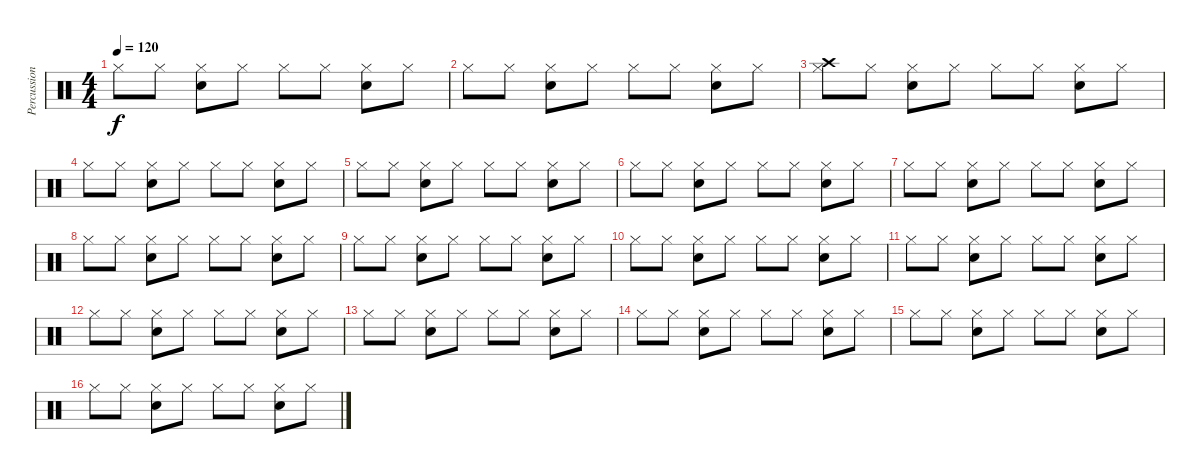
\track ("Percussion      " "Percussion") {instrument percussion}
\staff {score}
\articulation defaults
\ts (4 4)
\tempo 120
\clef neutral
\ks c "Hi-Hat (closed)".8{dy f} "Hi-Hat (closed)".8
("Hi-Hat (closed)" "Snare (hit) 2").8 "Hi-Hat (closed)".8 "Hi-Hat (closed)".8 "Hi-Hat (closed)".8 ("Hi-Hat (closed)" "Snare (hit) 2").8 "Hi-Hat (closed)".8 |
"Hi-Hat (closed)".8 "Hi-Hat (closed)".8 ("Hi-Hat (closed)" "Snare (hit) 2").8 "Hi-Hat (closed)".8 "Hi-Hat (closed)".8 "Hi-Hat (closed)".8 ("Hi-Hat (closed)" "Snare (hit) 2").8 "Hi-Hat (closed)".8 |
("Crash high (hit)" "Hi-Hat (closed)").8 "Hi-Hat (closed)".8 ("Hi-Hat (closed)" "Snare (hit) 2").8 "Hi-Hat (closed)".8 "Hi-Hat (closed)".8 "Hi-Hat (closed)".8 ("Hi-Hat (closed)" "Snare (hit) 2").8 "Hi-Hat (closed)".8 |
"Hi-Hat (closed)".8 "Hi-Hat (closed)".8 ("Hi-Hat (closed)" "Snare (hit) 2").8 "Hi-Hat (closed)".8 "Hi-Hat (closed)".8 "Hi-Hat (closed)".8 ("Hi-Hat (closed)" "Snare (hit) 2").8 "Hi-Hat (closed)".8 |
"Hi-Hat (closed)".8 "Hi-Hat (closed)".8 ("Hi-Hat (closed)" "Snare (hit) 2").8 "Hi-Hat (closed)".8 "Hi-Hat (closed)".8 "Hi-Hat (closed)".8 ("Hi-Hat (closed)" "Snare (hit) 2").8 "Hi-Hat (closed)".8 |
"Hi-Hat (closed)".8 "Hi-Hat (closed)".8 ("Hi-Hat (closed)" "Snare (hit) 2").8 "Hi-Hat (closed)".8 "Hi-Hat (closed)".8 "Hi-Hat (closed)".8 ("Hi-Hat (closed)" "Snare (hit) 2").8 "Hi-Hat (closed)".8 |
"Hi-Hat (closed)".8 "Hi-Hat (closed)".8 ("Hi-Hat (closed)" "Snare (hit) 2").8 "Hi-Hat (closed)".8 "Hi-Hat (closed)".8 "Hi-Hat (closed)".8 ("Hi-Hat (closed)" "Snare (hit) 2").8 "Hi-Hat (closed)".8 |
"Hi-Hat (closed)".8 "Hi-Hat (closed)".8 ("Hi-Hat (closed)" "Snare (hit) 2").8 "Hi-Hat (closed)".8 "Hi-Hat (closed)".8 "Hi-Hat (closed)".8 ("Hi-Hat (closed)" "Snare (hit) 2").8 "Hi-Hat (closed)".8 |
"Hi-Hat (closed)".8 "Hi-Hat (closed)".8 ("Hi-Hat (closed)" "Snare (hit) 2").8 "Hi-Hat (closed)".8 "Hi-Hat (closed)".8 "Hi-Hat (closed)".8 ("Hi-Hat (closed)" "Snare (hit) 2").8 "Hi-Hat (closed)".8 |
"Hi-Hat (closed)".8 "Hi-Hat (closed)".8 ("Hi-Hat (closed)" "Snare (hit) 2").8 "Hi-Hat (closed)".8 "Hi-Hat (closed)".8 "Hi-Hat (closed)".8 ("Hi-Hat (closed)" "Snare (hit) 2").8 "Hi-Hat (closed)".8 |
"Hi-Hat (closed)".8 "Hi-Hat (closed)".8 ("Hi-Hat (closed)" "Snare (hit) 2").8 "Hi-Hat (closed)".8 "Hi-Hat (closed)".8 "Hi-Hat (closed)".8 ("Hi-Hat (closed)" "Snare (hit) 2").8 "Hi-Hat (closed)".8 |
"Hi-Hat (closed)".8 "Hi-Hat (closed)".8 ("Hi-Hat (closed)" "Snare (hit) 2").8 "Hi-Hat (closed)".8 "Hi-Hat (closed)".8 "Hi-Hat (closed)".8 ("Hi-Hat (closed)" "Snare (hit) 2").8 "Hi-Hat (closed)".8 |
"Hi-Hat (closed)".8 "Hi-Hat (closed)".8 ("Hi-Hat (closed)" "Snare (hit) 2").8 "Hi-Hat (closed)".8 "Hi-Hat (closed)".8 "Hi-Hat (closed)".8 ("Hi-Hat (closed)" "Snare (hit) 2").8 "Hi-Hat (closed)".8 |
"Hi-Hat (closed)".8 "Hi-Hat (closed)".8 ("Hi-Hat (closed)" "Snare (hit) 2").8 "Hi-Hat (closed)".8 "Hi-Hat (closed)".8 "Hi-Hat (closed)".8 ("Hi-Hat (closed)" "Snare (hit) 2").8 "Hi-Hat (closed)".8 |
"Hi-Hat (closed)".8 "Hi-Hat (closed)".8 ("Hi-Hat (closed)" "Snare (hit) 2").8 "Hi-Hat (closed)".8 "Hi-Hat (closed)".8 "Hi-Hat (closed)".8 ("Hi-Hat (closed)" "Snare (hit) 2").8 "Hi-Hat (closed)".8 |
"Hi-Hat (closed)".8 "Hi-Hat (closed)".8 ("Hi-Hat (closed)" "Snare (hit) 2").8 "Hi-Hat (closed)".8 "Hi-Hat (closed)".8 "Hi-Hat (closed)".8 ("Hi-Hat (closed)" "Snare (hit) 2").8 "Hi-Hat (closed)".8
